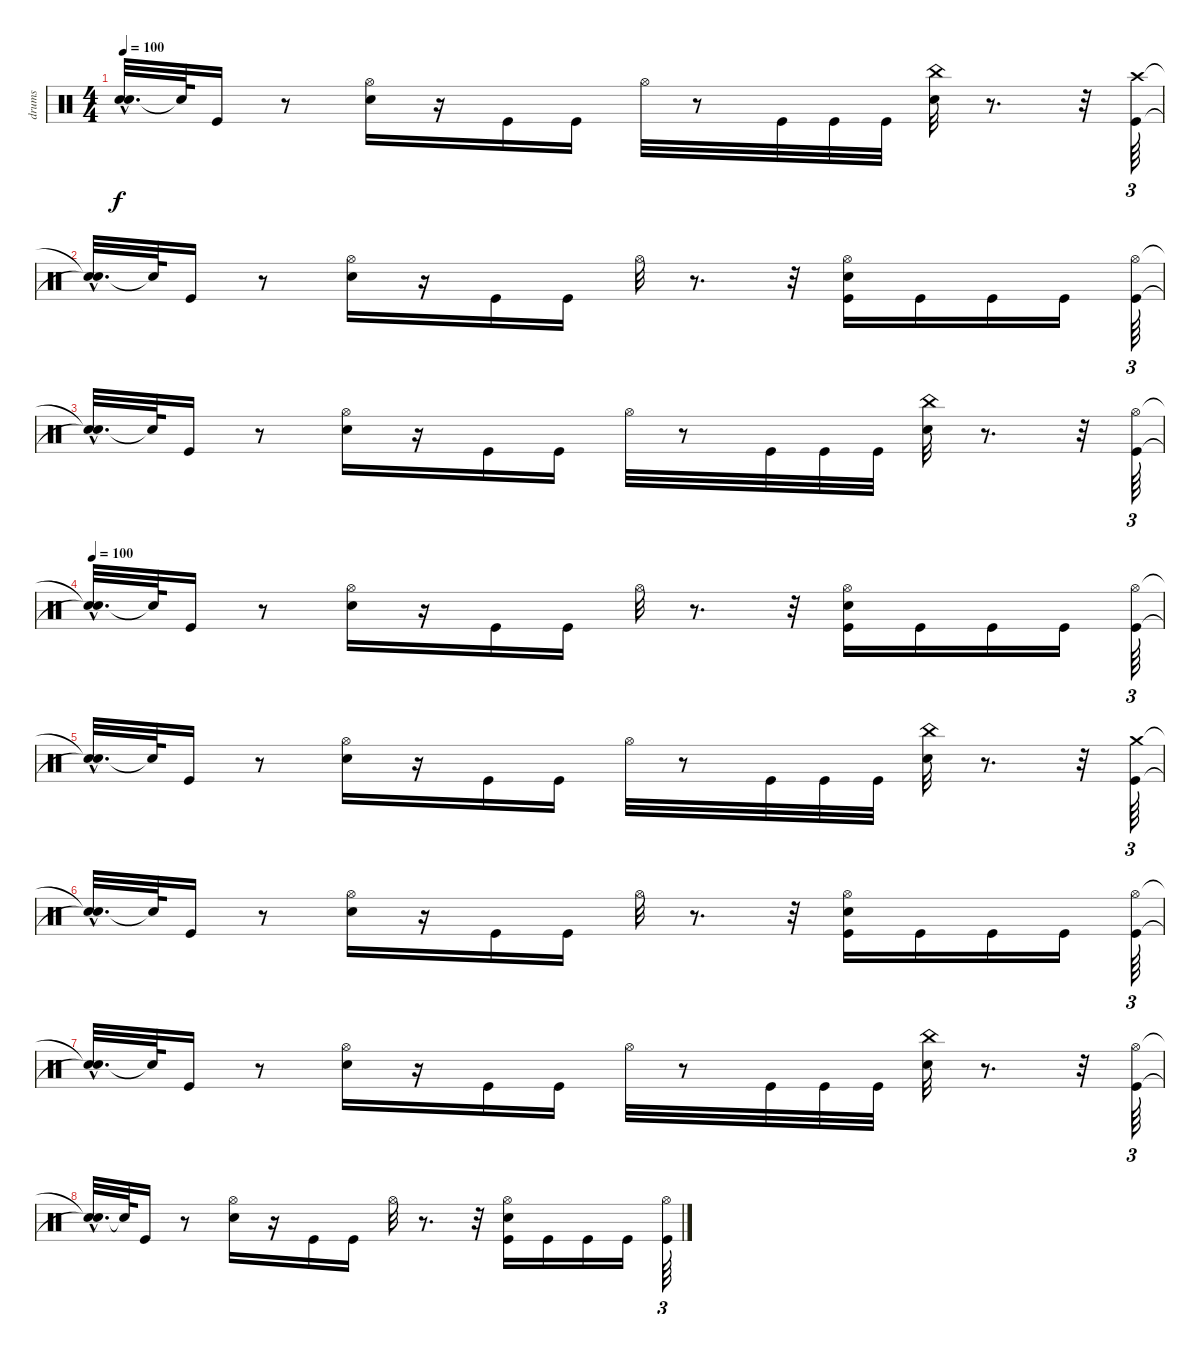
\track ("drums" "drums") {instrument percussion}
\staff {score}
\articulation defaults
\ts (4 4)
\tempo 100
\clef neutral
\ks c
("Snare (hit)"{hac t} "Snare (hit)"{t}).32{d dy f} "Snare (hit)"{t}.64 "Kick (hit)".16 r.8 ("Electric Snare (hit)" "Hi-Hat (open)").16 r.16 "Kick (hit)".16 "Kick (hit)".16 "Hi-Hat (open)".32 r.8 "Kick (hit)".32 "Kick (hit)".32 "Kick (hit)".32 ("China (hit)" "Electric Snare (hit)").32 r.8{d} r.32 ("Kick (hit)" "Crash high (hit)").64{tu (3 2)} |
("Snare (hit)"{hac t} "Snare (hit)"{t}).32{d} "Snare (hit)"{t}.64 "Kick (hit)".16 r.8 ("Electric Snare (hit)" "Hi-Hat (open)").16 r.16 "Kick (hit)".16 "Kick (hit)".16 "Hi-Hat (open)".32 r.8{d} r.32 ("Kick (hit)" "Hi-Hat (open)" "Electric Snare (hit)").16 "Kick (hit)".16 "Kick (hit)".16 "Kick (hit)".16 ("Hi-Hat (open)" "Kick (hit)").64{tu (3 2)} |
("Snare (hit)"{t} "Snare (hit)"{hac t}).32{d} "Snare (hit)"{t}.64 "Kick (hit)".16 r.8 ("Hi-Hat (open)" "Electric Snare (hit)").16 r.16 "Kick (hit)".16 "Kick (hit)".16 "Hi-Hat (open)".32 r.8 "Kick (hit)".32 "Kick (hit)".32 "Kick (hit)".32 ("Electric Snare (hit)" "China (hit)").32 r.8{d} r.32 ("Kick (hit)" "Hi-Hat (open)").64{tu (3 2)} |
\tempo 100
("Snare (hit)"{hac t} "Snare (hit)"{t}).32{d} "Snare (hit)"{t}.64 "Kick (hit)".16 r.8 ("Electric Snare (hit)" "Hi-Hat (open)").16 r.16 "Kick (hit)".16 "Kick (hit)".16 "Hi-Hat (open)".32 r.8{d} r.32 ("Kick (hit)" "Hi-Hat (open)" "Electric Snare (hit)").16 "Kick (hit)".16 "Kick (hit)".16 "Kick (hit)".16 ("Kick (hit)" "Hi-Hat (open)").64{tu (3 2)} |
("Snare (hit)"{hac t} "Snare (hit)"{t}).32{d} "Snare (hit)"{t}.64 "Kick (hit)".16 r.8 ("Hi-Hat (open)" "Electric Snare (hit)").16 r.16 "Kick (hit)".16 "Kick (hit)".16 "Hi-Hat (open)".32 r.8 "Kick (hit)".32 "Kick (hit)".32 "Kick (hit)".32 ("Electric Snare (hit)" "China (hit)").32 r.8{d} r.32 ("Kick (hit)" "Crash medium (hit)").64{tu (3 2)} |
("Snare (hit)"{hac t} "Snare (hit)"{t}).32{d} "Snare (hit)"{t}.64 "Kick (hit)".16 r.8 ("Electric Snare (hit)" "Hi-Hat (open)").16 r.16 "Kick (hit)".16 "Kick (hit)".16 "Hi-Hat (open)".32 r.8{d} r.32 ("Kick (hit)" "Hi-Hat (open)" "Electric Snare (hit)").16 "Kick (hit)".16 "Kick (hit)".16 "Kick (hit)".16 ("Kick (hit)" "Hi-Hat (open)").64{tu (3 2)} |
("Snare (hit)"{hac t} "Snare (hit)"{t}).32{d} "Snare (hit)"{t}.64 "Kick (hit)".16 r.8 ("Electric Snare (hit)" "Hi-Hat (open)").16 r.16 "Kick (hit)".16 "Kick (hit)".16 "Hi-Hat (open)".32 r.8 "Kick (hit)".32 "Kick (hit)".32 "Kick (hit)".32 ("China (hit)" "Electric Snare (hit)").32 r.8{d} r.32 ("Kick (hit)" "Hi-Hat (open)").64{tu (3 2)} |
("Snare (hit)"{hac t} "Snare (hit)"{t}).32{d} "Snare (hit)"{t}.64 "Kick (hit)".16 r.8 ("Electric Snare (hit)" "Hi-Hat (open)").16 r.16 "Kick (hit)".16 "Kick (hit)".16 "Hi-Hat (open)".32 r.8{d} r.32 ("Kick (hit)" "Electric Snare (hit)" "Hi-Hat (open)").16 "Kick (hit)".16 "Kick (hit)".16 "Kick (hit)".16 ("Hi-Hat (open)" "Kick (hit)").64{tu (3 2)}
